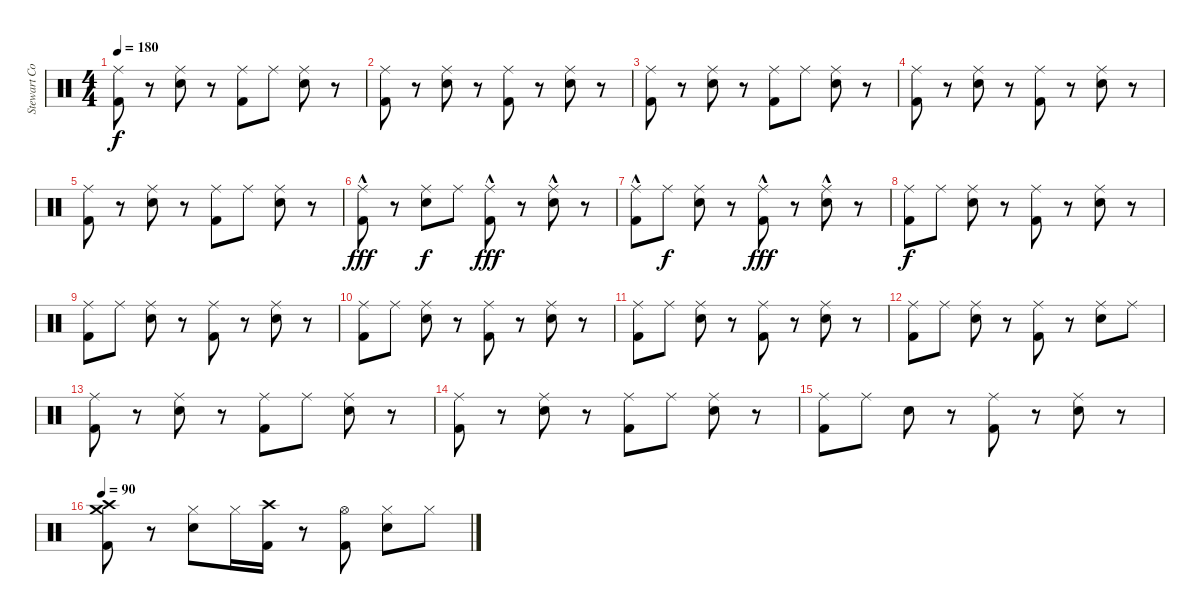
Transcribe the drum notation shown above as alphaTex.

\track ("Stewart Copeland" "Stewart Co") {instrument percussion}
\staff {score}
\articulation defaults
\ts (4 4)
\tempo 180
\clef neutral
\ks c
("Ride (middle)" "Kick (hit) 2").8{dy f} r.8 ("Ride (middle)" "Electric Snare (hit)").8 r.8 ("Ride (middle)" "Kick (hit) 2").8 "Ride (middle)".8 ("Ride (middle)" "Electric Snare (hit)").8 r.8 |
("Ride (middle)" "Kick (hit) 2").8 r.8 ("Ride (middle)" "Electric Snare (hit)").8 r.8 ("Ride (middle)" "Kick (hit) 2").8 r.8 ("Ride (middle)" "Electric Snare (hit)").8 r.8 |
("Ride (middle)" "Kick (hit) 2").8 r.8 ("Ride (middle)" "Electric Snare (hit)").8 r.8 ("Ride (middle)" "Kick (hit) 2").8 "Ride (middle)".8 ("Ride (middle)" "Electric Snare (hit)").8 r.8 |
("Ride (middle)" "Kick (hit) 2").8 r.8 ("Ride (middle)" "Electric Snare (hit)").8 r.8 ("Ride (middle)" "Kick (hit) 2").8 r.8 ("Ride (middle)" "Electric Snare (hit)").8 r.8 |
("Ride (middle)" "Kick (hit) 2").8 r.8 ("Ride (middle)" "Electric Snare (hit)").8 r.8 ("Ride (middle)" "Kick (hit) 2").8 "Ride (middle)".8 ("Ride (middle)" "Electric Snare (hit)").8 r.8 |
("Ride (middle)"{hac} "Kick (hit) 2").8{dy fff} r.8 ("Ride (middle)" "Electric Snare (hit)").8{dy f} "Ride (middle)".8 ("Ride (middle)"{hac} "Kick (hit) 2").8{dy fff} r.8 ("Ride (middle)"{hac} "Electric Snare (hit)").8 r.8 |
("Ride (middle)"{hac} "Kick (hit) 2").8 "Ride (middle)".8{dy f} ("Ride (middle)" "Electric Snare (hit)").8 r.8 ("Ride (middle)"{hac} "Kick (hit) 2").8{dy fff} r.8 ("Ride (middle)"{hac} "Electric Snare (hit)").8 r.8 |
("Ride (middle)" "Kick (hit) 2").8{dy f} "Ride (middle)".8 ("Ride (middle)" "Electric Snare (hit)").8 r.8 ("Ride (middle)" "Kick (hit) 2").8 r.8 ("Ride (middle)" "Electric Snare (hit)").8 r.8 |
("Ride (middle)" "Kick (hit) 2").8 "Ride (middle)".8 ("Ride (middle)" "Electric Snare (hit)").8 r.8 ("Ride (middle)" "Kick (hit) 2").8 r.8 ("Ride (middle)" "Electric Snare (hit)").8 r.8 |
("Ride (middle)" "Kick (hit) 2").8 "Ride (middle)".8 ("Ride (middle)" "Electric Snare (hit)").8 r.8 ("Ride (middle)" "Kick (hit) 2").8 r.8 ("Ride (middle)" "Electric Snare (hit)").8 r.8 |
("Ride (middle)" "Kick (hit) 2").8 "Ride (middle)".8 ("Ride (middle)" "Electric Snare (hit)").8 r.8 ("Ride (middle)" "Kick (hit) 2").8 r.8 ("Ride (middle)" "Electric Snare (hit)").8 r.8 |
("Ride (middle)" "Kick (hit) 2").8 "Ride (middle)".8 ("Ride (middle)" "Electric Snare (hit)").8 r.8 ("Ride (middle)" "Kick (hit) 2").8 r.8 ("Ride (middle)" "Electric Snare (hit)").8 "Ride (middle)".8 |
("Ride (middle)" "Kick (hit) 2").8 r.8 ("Ride (middle)" "Electric Snare (hit)").8 r.8 ("Ride (middle)" "Kick (hit) 2").8 "Ride (middle)".8 ("Ride (middle)" "Electric Snare (hit)").8 r.8 |
("Ride (middle)" "Kick (hit) 2").8 r.8 ("Ride (middle)" "Electric Snare (hit)").8 r.8 ("Ride (middle)" "Kick (hit) 2").8 "Ride (middle)".8 ("Ride (middle)" "Electric Snare (hit)").8 r.8 |
("Ride (middle)" "Kick (hit) 2").8 "Ride (middle)".8 "Electric Snare (hit)".8 r.8 ("Ride (middle)" "Kick (hit) 2").8 r.8 ("Ride (middle)" "Electric Snare (hit)").8 r.8 |
\tempo 90
("Crash high (hit)" "Crash medium (hit)" "Kick (hit) 2").8 r.8 ("Hi-Hat (closed)" "Electric Snare (hit)").8 "Hi-Hat (closed)".16 ("Crash high (hit)" "Kick (hit) 2").16 r.8 ("Hi-Hat (open)" "Kick (hit) 2").8 ("Hi-Hat (closed)" "Electric Snare (hit)").8 "Hi-Hat (closed)".8
